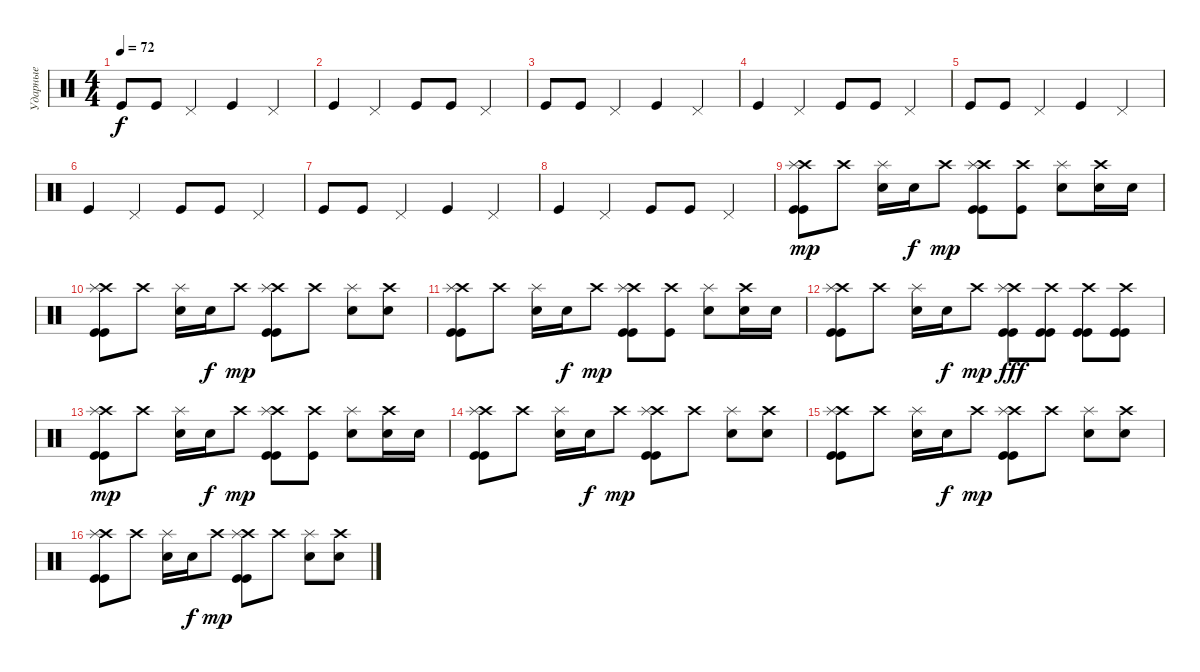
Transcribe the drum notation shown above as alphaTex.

\track ("Ударные" "Ударные") {instrument percussion}
\staff {score}
\articulation defaults
\ts (4 4)
\tempo 72
\clef neutral
\ks c "Kick (hit)".8{dy f} "Kick (hit)".8 "Pedal Hi-Hat (hit)".4 "Kick (hit)".4 "Pedal Hi-Hat (hit)".4
|
"Kick (hit)".4 "Pedal Hi-Hat (hit)".4 "Kick (hit)".8 "Kick (hit)".8 "Pedal Hi-Hat (hit)".4 |
"Kick (hit)".8 "Kick (hit)".8 "Pedal Hi-Hat (hit)".4 "Kick (hit)".4 "Pedal Hi-Hat (hit)".4 |
"Kick (hit)".4 "Pedal Hi-Hat (hit)".4 "Kick (hit)".8 "Kick (hit)".8 "Pedal Hi-Hat (hit)".4 |
"Kick (hit)".8 "Kick (hit)".8 "Pedal Hi-Hat (hit)".4 "Kick (hit)".4 "Pedal Hi-Hat (hit)".4 |
"Kick (hit)".4 "Pedal Hi-Hat (hit)".4 "Kick (hit)".8 "Kick (hit)".8 "Pedal Hi-Hat (hit)".4 |
"Kick (hit)".8 "Kick (hit)".8 "Pedal Hi-Hat (hit)".4 "Kick (hit)".4 "Pedal Hi-Hat (hit)".4 |
"Kick (hit)".4 "Pedal Hi-Hat (hit)".4 "Kick (hit)".8 "Kick (hit)".8 "Pedal Hi-Hat (hit)".4 |
("Crash high (hit)" "Splash (hit)" "Kick (hit)" "Kick (hit)").8{dy mp} "Crash high (hit)".8 ("Splash (hit)" "Electric Snare (hit)").16 "Snare (hit) 2".16{dy f} "Crash high (hit)".8{dy mp} ("Crash high (hit)" "Splash (hit)" "Kick (hit)" "Kick (hit)").8 ("Crash high (hit)" "Kick (hit)").8 ("Splash (hit)" "Electric Snare (hit)").8 ("Crash high (hit)" "Snare (hit) 2").16 "Electric Snare (hit)".16 |
("Crash high (hit)" "Splash (hit)" "Kick (hit)" "Kick (hit)").8 "Crash high (hit)".8 ("Splash (hit)" "Electric Snare (hit)").16 "Snare (hit) 2".16{dy f} "Crash high (hit)".8{dy mp} ("Crash high (hit)" "Splash (hit)" "Kick (hit)" "Kick (hit)").8 "Crash high (hit)".8 ("Splash (hit)" "Electric Snare (hit)").8 ("Crash high (hit)" "Snare (hit) 2").8 |
("Crash high (hit)" "Splash (hit)" "Kick (hit)" "Kick (hit)").8 "Crash high (hit)".8 ("Splash (hit)" "Electric Snare (hit)").16 "Snare (hit) 2".16{dy f} "Crash high (hit)".8{dy mp} ("Crash high (hit)" "Splash (hit)" "Kick (hit)" "Kick (hit)").8 ("Crash high (hit)" "Kick (hit)").8 ("Splash (hit)" "Electric Snare (hit)").8 ("Crash high (hit)" "Snare (hit) 2").16 "Electric Snare (hit)".16 |
("Crash high (hit)" "Splash (hit)" "Kick (hit)" "Kick (hit)").8 "Crash high (hit)".8 ("Splash (hit)" "Electric Snare (hit)").16 "Snare (hit) 2".16{dy f} "Crash high (hit)".8{dy mp} ("Crash high (hit)" "Splash (hit)" "Kick (hit)" "Kick (hit)").8{dy fff} ("Crash high (hit)" "Kick (hit)" "Kick (hit)").8 ("Crash high (hit)" "Kick (hit)" "Kick (hit)").8 ("Crash high (hit)" "Kick (hit)" "Kick (hit)").8 |
("Crash high (hit)" "Splash (hit)" "Kick (hit)" "Kick (hit)").8{dy mp} "Crash high (hit)".8 ("Splash (hit)" "Electric Snare (hit)").16 "Snare (hit) 2".16{dy f} "Crash high (hit)".8{dy mp} ("Crash high (hit)" "Splash (hit)" "Kick (hit)" "Kick (hit)").8 ("Crash high (hit)" "Kick (hit)").8 ("Splash (hit)" "Electric Snare (hit)").8 ("Crash high (hit)" "Snare (hit) 2").16 "Electric Snare (hit)".16 |
("Crash high (hit)" "Splash (hit)" "Kick (hit)" "Kick (hit)").8 "Crash high (hit)".8 ("Splash (hit)" "Electric Snare (hit)").16 "Snare (hit) 2".16{dy f} "Crash high (hit)".8{dy mp} ("Crash high (hit)" "Splash (hit)" "Kick (hit)" "Kick (hit)").8 "Crash high (hit)".8 ("Splash (hit)" "Electric Snare (hit)").8 ("Crash high (hit)" "Snare (hit) 2").8 |
("Crash high (hit)" "Splash (hit)" "Kick (hit)" "Kick (hit)").8 "Crash high (hit)".8 ("Splash (hit)" "Electric Snare (hit)").16 "Snare (hit) 2".16{dy f} "Crash high (hit)".8{dy mp} ("Crash high (hit)" "Splash (hit)" "Kick (hit)" "Kick (hit)").8 "Crash high (hit)".8 ("Splash (hit)" "Electric Snare (hit)").8 ("Crash high (hit)" "Snare (hit) 2").8 |
("Crash high (hit)" "Splash (hit)" "Kick (hit)" "Kick (hit)").8 "Crash high (hit)".8 ("Splash (hit)" "Electric Snare (hit)").16 "Snare (hit) 2".16{dy f} "Crash high (hit)".8{dy mp} ("Crash high (hit)" "Splash (hit)" "Kick (hit)" "Kick (hit)").8 "Crash high (hit)".8 ("Splash (hit)" "Electric Snare (hit)").8 ("Crash high (hit)" "Snare (hit) 2").8
